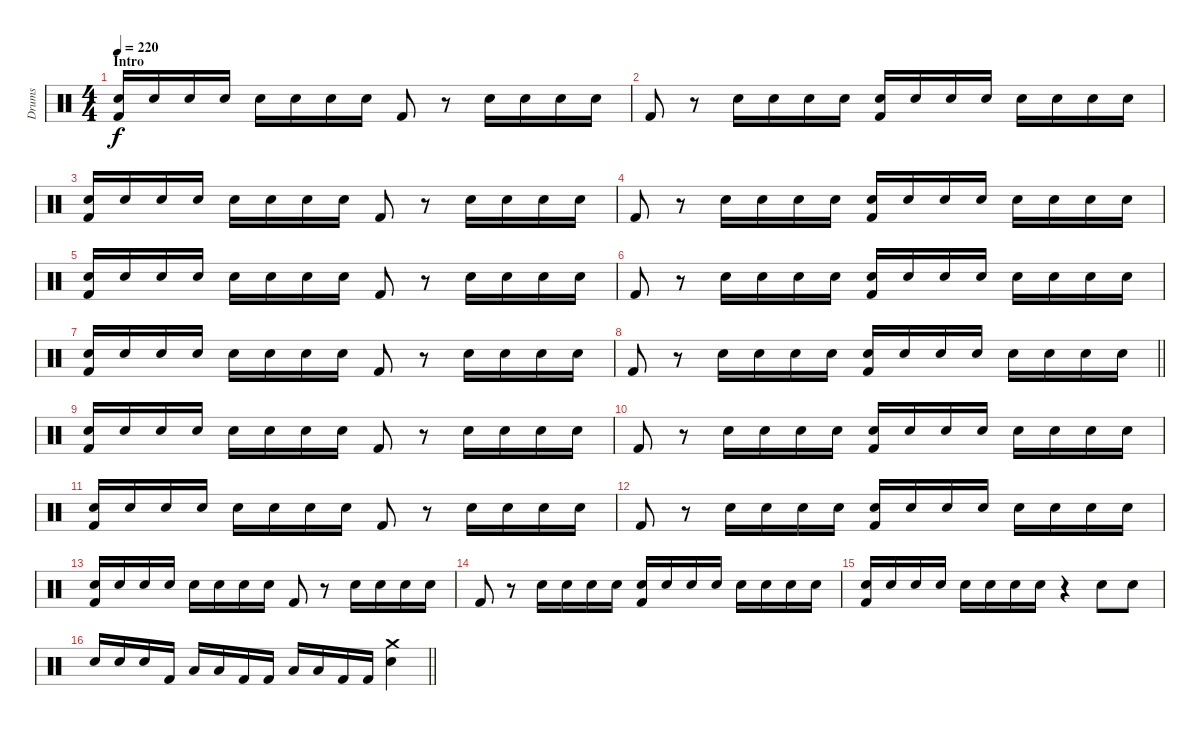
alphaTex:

\track ("Drums" "Drums") {instrument percussion}
\staff {score}
\articulation defaults
\ts (4 4)
\section ("" "Intro")
\tempo 220
\clef neutral
\ks c
("Electric Snare (hit)" "Kick (hit) 2").16{dy f} "Electric Snare (hit)".16 "Electric Snare (hit)".16 "Electric Snare (hit)".16 "Electric Snare (hit)".16 "Electric Snare (hit)".16 "Electric Snare (hit)".16 "Electric Snare (hit)".16 "Kick (hit) 2".8 r.8 "Electric Snare (hit)".16 "Electric Snare (hit)".16 "Electric Snare (hit)".16 "Electric Snare (hit)".16 |
"Kick (hit) 2".8 r.8 "Electric Snare (hit)".16 "Electric Snare (hit)".16 "Electric Snare (hit)".16 "Electric Snare (hit)".16 ("Electric Snare (hit)" "Kick (hit) 2").16 "Electric Snare (hit)".16 "Electric Snare (hit)".16 "Electric Snare (hit)".16 "Electric Snare (hit)".16 "Electric Snare (hit)".16 "Electric Snare (hit)".16 "Electric Snare (hit)".16 |
("Electric Snare (hit)" "Kick (hit) 2").16 "Electric Snare (hit)".16 "Electric Snare (hit)".16 "Electric Snare (hit)".16 "Electric Snare (hit)".16 "Electric Snare (hit)".16 "Electric Snare (hit)".16 "Electric Snare (hit)".16 "Kick (hit) 2".8 r.8 "Electric Snare (hit)".16 "Electric Snare (hit)".16 "Electric Snare (hit)".16 "Electric Snare (hit)".16 |
"Kick (hit) 2".8 r.8 "Electric Snare (hit)".16 "Electric Snare (hit)".16 "Electric Snare (hit)".16 "Electric Snare (hit)".16 ("Electric Snare (hit)" "Kick (hit) 2").16 "Electric Snare (hit)".16 "Electric Snare (hit)".16 "Electric Snare (hit)".16 "Electric Snare (hit)".16 "Electric Snare (hit)".16 "Electric Snare (hit)".16 "Electric Snare (hit)".16 |
("Electric Snare (hit)" "Kick (hit) 2").16 "Electric Snare (hit)".16 "Electric Snare (hit)".16 "Electric Snare (hit)".16 "Electric Snare (hit)".16 "Electric Snare (hit)".16 "Electric Snare (hit)".16 "Electric Snare (hit)".16 "Kick (hit) 2".8 r.8 "Electric Snare (hit)".16 "Electric Snare (hit)".16 "Electric Snare (hit)".16 "Electric Snare (hit)".16 |
"Kick (hit) 2".8 r.8 "Electric Snare (hit)".16 "Electric Snare (hit)".16 "Electric Snare (hit)".16 "Electric Snare (hit)".16 ("Electric Snare (hit)" "Kick (hit) 2").16 "Electric Snare (hit)".16 "Electric Snare (hit)".16 "Electric Snare (hit)".16 "Electric Snare (hit)".16 "Electric Snare (hit)".16 "Electric Snare (hit)".16 "Electric Snare (hit)".16 |
("Electric Snare (hit)" "Kick (hit) 2").16 "Electric Snare (hit)".16 "Electric Snare (hit)".16 "Electric Snare (hit)".16 "Electric Snare (hit)".16 "Electric Snare (hit)".16 "Electric Snare (hit)".16 "Electric Snare (hit)".16 "Kick (hit) 2".8 r.8 "Electric Snare (hit)".16 "Electric Snare (hit)".16 "Electric Snare (hit)".16 "Electric Snare (hit)".16 |
\barLineRight lightlight "Kick (hit) 2".8
r.8 "Electric Snare (hit)".16 "Electric Snare (hit)".16 "Electric Snare (hit)".16 "Electric Snare (hit)".16 ("Electric Snare (hit)" "Kick (hit) 2").16 "Electric Snare (hit)".16 "Electric Snare (hit)".16 "Electric Snare (hit)".16 "Electric Snare (hit)".16 "Electric Snare (hit)".16 "Electric Snare (hit)".16 "Electric Snare (hit)".16 |
("Electric Snare (hit)" "Kick (hit) 2").16 "Electric Snare (hit)".16 "Electric Snare (hit)".16 "Electric Snare (hit)".16 "Electric Snare (hit)".16 "Electric Snare (hit)".16 "Electric Snare (hit)".16 "Electric Snare (hit)".16 "Kick (hit) 2".8 r.8 "Electric Snare (hit)".16 "Electric Snare (hit)".16 "Electric Snare (hit)".16 "Electric Snare (hit)".16 |
"Kick (hit) 2".8 r.8 "Electric Snare (hit)".16 "Electric Snare (hit)".16 "Electric Snare (hit)".16 "Electric Snare (hit)".16 ("Electric Snare (hit)" "Kick (hit) 2").16 "Electric Snare (hit)".16 "Electric Snare (hit)".16 "Electric Snare (hit)".16 "Electric Snare (hit)".16 "Electric Snare (hit)".16 "Electric Snare (hit)".16 "Electric Snare (hit)".16 |
("Electric Snare (hit)" "Kick (hit) 2").16 "Electric Snare (hit)".16 "Electric Snare (hit)".16 "Electric Snare (hit)".16 "Electric Snare (hit)".16 "Electric Snare (hit)".16 "Electric Snare (hit)".16 "Electric Snare (hit)".16 "Kick (hit) 2".8 r.8 "Electric Snare (hit)".16 "Electric Snare (hit)".16 "Electric Snare (hit)".16 "Electric Snare (hit)".16 |
"Kick (hit) 2".8 r.8 "Electric Snare (hit)".16 "Electric Snare (hit)".16 "Electric Snare (hit)".16 "Electric Snare (hit)".16 ("Electric Snare (hit)" "Kick (hit) 2").16 "Electric Snare (hit)".16 "Electric Snare (hit)".16 "Electric Snare (hit)".16 "Electric Snare (hit)".16 "Electric Snare (hit)".16 "Electric Snare (hit)".16 "Electric Snare (hit)".16 |
("Electric Snare (hit)" "Kick (hit) 2").16 "Electric Snare (hit)".16 "Electric Snare (hit)".16 "Electric Snare (hit)".16 "Electric Snare (hit)".16 "Electric Snare (hit)".16 "Electric Snare (hit)".16 "Electric Snare (hit)".16 "Kick (hit) 2".8 r.8 "Electric Snare (hit)".16 "Electric Snare (hit)".16 "Electric Snare (hit)".16 "Electric Snare (hit)".16 |
"Kick (hit) 2".8 r.8 "Electric Snare (hit)".16 "Electric Snare (hit)".16 "Electric Snare (hit)".16 "Electric Snare (hit)".16 ("Electric Snare (hit)" "Kick (hit) 2").16 "Electric Snare (hit)".16 "Electric Snare (hit)".16 "Electric Snare (hit)".16 "Electric Snare (hit)".16 "Electric Snare (hit)".16 "Electric Snare (hit)".16 "Electric Snare (hit)".16 |
("Electric Snare (hit)" "Kick (hit) 2").16 "Electric Snare (hit)".16 "Electric Snare (hit)".16 "Electric Snare (hit)".16 "Electric Snare (hit)".16 "Electric Snare (hit)".16 "Electric Snare (hit)".16 "Electric Snare (hit)".16 r.4 "Electric Snare (hit)".8 "Electric Snare (hit)".8 |
\barLineRight lightlight "Electric Snare (hit)".16 "Electric Snare (hit)".16 "Electric Snare (hit)".16 "Kick (hit) 2".16 "Low Tom (hit)".16 "Low Tom (hit)".16 "Kick (hit) 2".16 "Kick (hit) 2".16 "Low Tom (hit)".16 "Low Tom (hit)".16 "Kick (hit) 2".16 "Kick (hit) 2".16
("Crash medium (hit)" "Electric Snare (hit)").4
